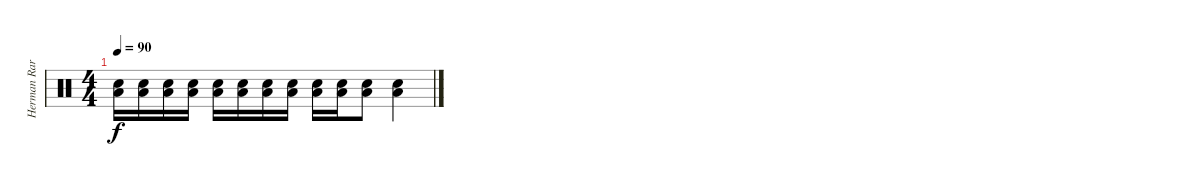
\track ("Herman Rarebell (Drums)" "Herman Rar") {instrument percussion}
\staff {score}
\articulation defaults
\ts (4 4)
\tempo 90
\clef neutral
\ks c
("Electric Snare (hit)" "Low Floor Tom (hit)").16{dy f} ("Electric Snare (hit)" "Low Floor Tom (hit)").16 ("Electric Snare (hit)" "Low Floor Tom (hit)").16 ("Electric Snare (hit)" "Low Floor Tom (hit)").16 ("Electric Snare (hit)" "Low Floor Tom (hit)").16 ("Electric Snare (hit)" "Low Floor Tom (hit)").16 ("Electric Snare (hit)" "Low Floor Tom (hit)").16 ("Electric Snare (hit)" "Low Floor Tom (hit)").16 ("Electric Snare (hit)" "Low Floor Tom (hit)").16 ("Electric Snare (hit)" "Low Floor Tom (hit)").16 ("Electric Snare (hit)" "Low Floor Tom (hit)").8 ("Electric Snare (hit)" "Low Floor Tom (hit)").4{bd 240}
